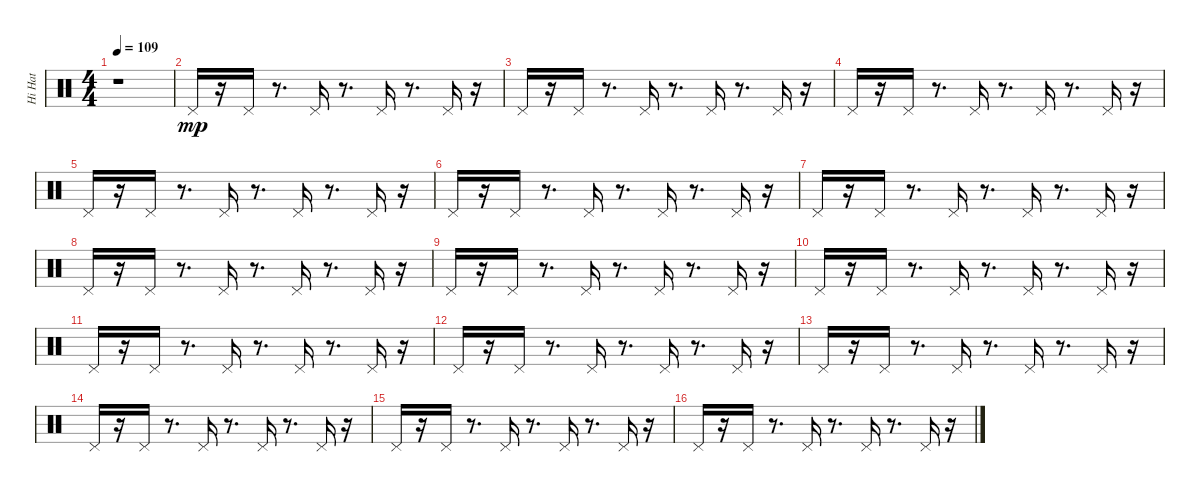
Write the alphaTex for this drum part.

\track ("Hi Hat" "Hi Hat") {instrument percussion}
\staff {score}
\articulation defaults
\ts (4 4)
\tempo 109
\clef neutral
\ks c
r.1{dy mp} |
"Pedal Hi-Hat (hit)".16 r.16 "Pedal Hi-Hat (hit)".16 r.8{d} "Pedal Hi-Hat (hit)".16 r.8{d} "Pedal Hi-Hat (hit)".16 r.8{d} "Pedal Hi-Hat (hit)".16 r.16 |
"Pedal Hi-Hat (hit)".16 r.16 "Pedal Hi-Hat (hit)".16 r.8{d} "Pedal Hi-Hat (hit)".16 r.8{d} "Pedal Hi-Hat (hit)".16 r.8{d} "Pedal Hi-Hat (hit)".16 r.16 |
"Pedal Hi-Hat (hit)".16 r.16 "Pedal Hi-Hat (hit)".16 r.8{d} "Pedal Hi-Hat (hit)".16 r.8{d} "Pedal Hi-Hat (hit)".16 r.8{d} "Pedal Hi-Hat (hit)".16 r.16 |
"Pedal Hi-Hat (hit)".16 r.16 "Pedal Hi-Hat (hit)".16 r.8{d} "Pedal Hi-Hat (hit)".16 r.8{d} "Pedal Hi-Hat (hit)".16 r.8{d} "Pedal Hi-Hat (hit)".16 r.16 |
"Pedal Hi-Hat (hit)".16 r.16 "Pedal Hi-Hat (hit)".16 r.8{d} "Pedal Hi-Hat (hit)".16 r.8{d} "Pedal Hi-Hat (hit)".16 r.8{d} "Pedal Hi-Hat (hit)".16 r.16 |
"Pedal Hi-Hat (hit)".16 r.16 "Pedal Hi-Hat (hit)".16 r.8{d} "Pedal Hi-Hat (hit)".16 r.8{d} "Pedal Hi-Hat (hit)".16 r.8{d} "Pedal Hi-Hat (hit)".16 r.16 |
"Pedal Hi-Hat (hit)".16 r.16 "Pedal Hi-Hat (hit)".16 r.8{d} "Pedal Hi-Hat (hit)".16 r.8{d} "Pedal Hi-Hat (hit)".16 r.8{d} "Pedal Hi-Hat (hit)".16 r.16 |
"Pedal Hi-Hat (hit)".16 r.16 "Pedal Hi-Hat (hit)".16 r.8{d} "Pedal Hi-Hat (hit)".16 r.8{d} "Pedal Hi-Hat (hit)".16 r.8{d} "Pedal Hi-Hat (hit)".16 r.16 |
"Pedal Hi-Hat (hit)".16 r.16 "Pedal Hi-Hat (hit)".16 r.8{d} "Pedal Hi-Hat (hit)".16 r.8{d} "Pedal Hi-Hat (hit)".16 r.8{d} "Pedal Hi-Hat (hit)".16 r.16 |
"Pedal Hi-Hat (hit)".16 r.16 "Pedal Hi-Hat (hit)".16 r.8{d} "Pedal Hi-Hat (hit)".16 r.8{d} "Pedal Hi-Hat (hit)".16 r.8{d} "Pedal Hi-Hat (hit)".16 r.16 |
"Pedal Hi-Hat (hit)".16 r.16 "Pedal Hi-Hat (hit)".16 r.8{d} "Pedal Hi-Hat (hit)".16 r.8{d} "Pedal Hi-Hat (hit)".16 r.8{d} "Pedal Hi-Hat (hit)".16 r.16 |
"Pedal Hi-Hat (hit)".16 r.16 "Pedal Hi-Hat (hit)".16 r.8{d} "Pedal Hi-Hat (hit)".16 r.8{d} "Pedal Hi-Hat (hit)".16 r.8{d} "Pedal Hi-Hat (hit)".16 r.16 |
"Pedal Hi-Hat (hit)".16 r.16 "Pedal Hi-Hat (hit)".16 r.8{d} "Pedal Hi-Hat (hit)".16 r.8{d} "Pedal Hi-Hat (hit)".16 r.8{d} "Pedal Hi-Hat (hit)".16 r.16 |
"Pedal Hi-Hat (hit)".16 r.16 "Pedal Hi-Hat (hit)".16 r.8{d} "Pedal Hi-Hat (hit)".16 r.8{d} "Pedal Hi-Hat (hit)".16 r.8{d} "Pedal Hi-Hat (hit)".16 r.16 |
"Pedal Hi-Hat (hit)".16 r.16 "Pedal Hi-Hat (hit)".16 r.8{d} "Pedal Hi-Hat (hit)".16 r.8{d} "Pedal Hi-Hat (hit)".16 r.8{d} "Pedal Hi-Hat (hit)".16 r.16
